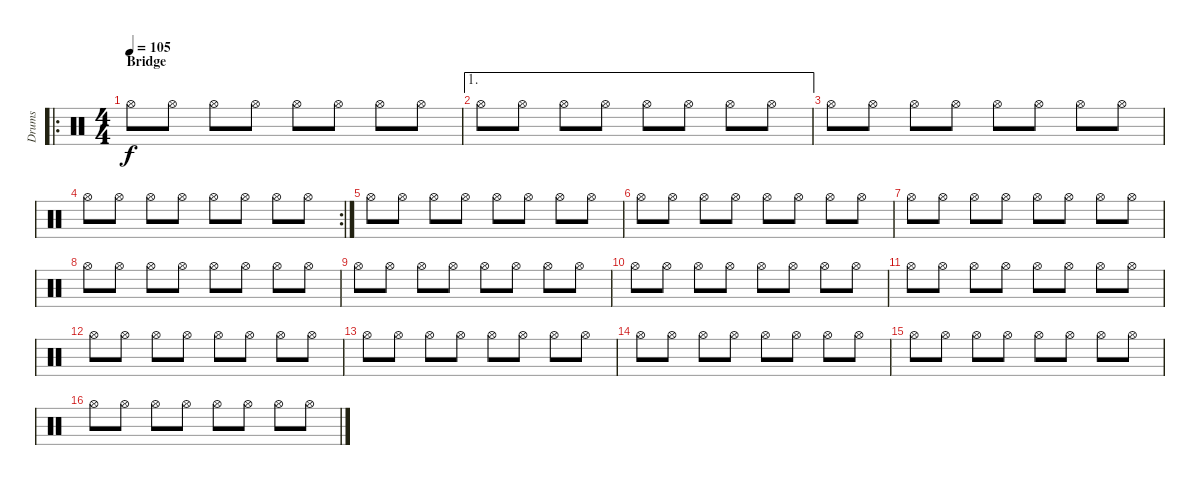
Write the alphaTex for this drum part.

\track ("Drums" "Drums") {instrument percussion}
\staff {score}
\articulation defaults
\ro
\ts (4 4)
\section ("" "Bridge")
\tempo 105
\clef neutral
\ks c "Hi-Hat (open)".8{dy f} "Hi-Hat (open)".8 "Hi-Hat (open)".8 "Hi-Hat (open)".8 "Hi-Hat (open)".8 "Hi-Hat (open)".8 "Hi-Hat (open)".8 "Hi-Hat (open)".8
|
\ae 1 "Hi-Hat (open)".8 "Hi-Hat (open)".8 "Hi-Hat (open)".8 "Hi-Hat (open)".8 "Hi-Hat (open)".8 "Hi-Hat (open)".8 "Hi-Hat (open)".8 "Hi-Hat (open)".8
|
"Hi-Hat (open)".8 "Hi-Hat (open)".8 "Hi-Hat (open)".8 "Hi-Hat (open)".8 "Hi-Hat (open)".8 "Hi-Hat (open)".8 "Hi-Hat (open)".8 "Hi-Hat (open)".8 |
\rc 2 "Hi-Hat (open)".8 "Hi-Hat (open)".8 "Hi-Hat (open)".8 "Hi-Hat (open)".8 "Hi-Hat (open)".8 "Hi-Hat (open)".8 "Hi-Hat (open)".8 "Hi-Hat (open)".8
|
"Hi-Hat (open)".8 "Hi-Hat (open)".8 "Hi-Hat (open)".8 "Hi-Hat (open)".8 "Hi-Hat (open)".8 "Hi-Hat (open)".8 "Hi-Hat (open)".8 "Hi-Hat (open)".8 |
"Hi-Hat (open)".8 "Hi-Hat (open)".8 "Hi-Hat (open)".8 "Hi-Hat (open)".8 "Hi-Hat (open)".8 "Hi-Hat (open)".8 "Hi-Hat (open)".8 "Hi-Hat (open)".8 |
"Hi-Hat (open)".8 "Hi-Hat (open)".8 "Hi-Hat (open)".8 "Hi-Hat (open)".8 "Hi-Hat (open)".8 "Hi-Hat (open)".8 "Hi-Hat (open)".8 "Hi-Hat (open)".8 |
"Hi-Hat (open)".8 "Hi-Hat (open)".8 "Hi-Hat (open)".8 "Hi-Hat (open)".8 "Hi-Hat (open)".8 "Hi-Hat (open)".8 "Hi-Hat (open)".8 "Hi-Hat (open)".8 |
"Hi-Hat (open)".8 "Hi-Hat (open)".8 "Hi-Hat (open)".8 "Hi-Hat (open)".8 "Hi-Hat (open)".8 "Hi-Hat (open)".8 "Hi-Hat (open)".8 "Hi-Hat (open)".8 |
"Hi-Hat (open)".8 "Hi-Hat (open)".8 "Hi-Hat (open)".8 "Hi-Hat (open)".8 "Hi-Hat (open)".8 "Hi-Hat (open)".8 "Hi-Hat (open)".8 "Hi-Hat (open)".8 |
"Hi-Hat (open)".8 "Hi-Hat (open)".8 "Hi-Hat (open)".8 "Hi-Hat (open)".8 "Hi-Hat (open)".8 "Hi-Hat (open)".8 "Hi-Hat (open)".8 "Hi-Hat (open)".8 |
"Hi-Hat (open)".8 "Hi-Hat (open)".8 "Hi-Hat (open)".8 "Hi-Hat (open)".8 "Hi-Hat (open)".8 "Hi-Hat (open)".8 "Hi-Hat (open)".8 "Hi-Hat (open)".8 |
"Hi-Hat (open)".8 "Hi-Hat (open)".8 "Hi-Hat (open)".8 "Hi-Hat (open)".8 "Hi-Hat (open)".8 "Hi-Hat (open)".8 "Hi-Hat (open)".8 "Hi-Hat (open)".8 |
"Hi-Hat (open)".8 "Hi-Hat (open)".8 "Hi-Hat (open)".8 "Hi-Hat (open)".8 "Hi-Hat (open)".8 "Hi-Hat (open)".8 "Hi-Hat (open)".8 "Hi-Hat (open)".8 |
"Hi-Hat (open)".8 "Hi-Hat (open)".8 "Hi-Hat (open)".8 "Hi-Hat (open)".8 "Hi-Hat (open)".8 "Hi-Hat (open)".8 "Hi-Hat (open)".8 "Hi-Hat (open)".8 |
"Hi-Hat (open)".8 "Hi-Hat (open)".8 "Hi-Hat (open)".8 "Hi-Hat (open)".8 "Hi-Hat (open)".8 "Hi-Hat (open)".8 "Hi-Hat (open)".8 "Hi-Hat (open)".8
